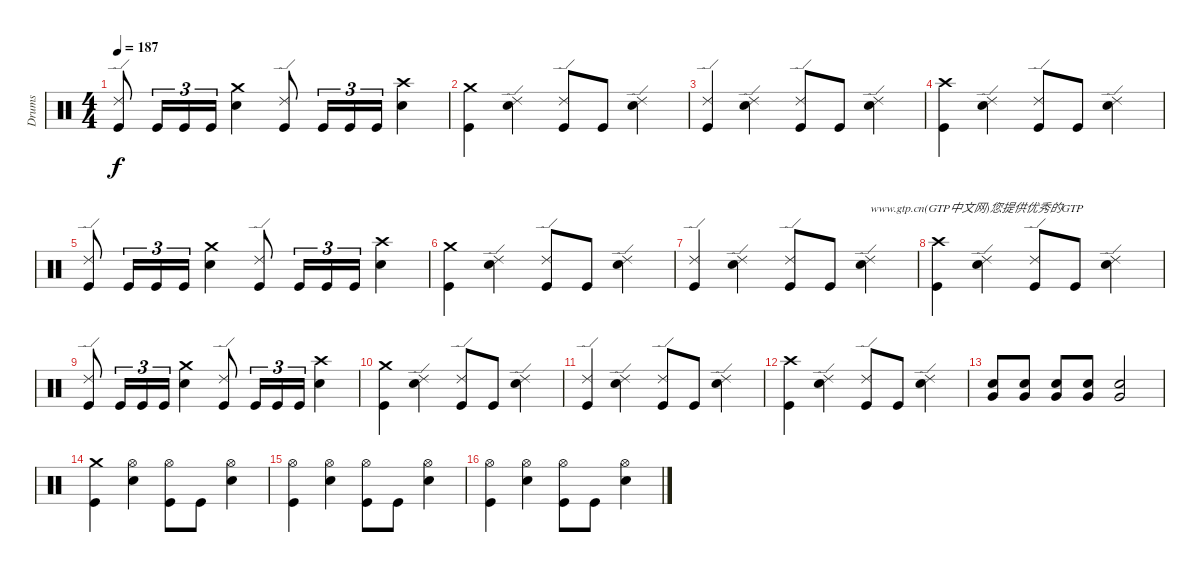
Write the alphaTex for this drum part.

\track ("Drums" "Drums") {instrument percussion}
\staff {score}
\articulation defaults
\ts (4 4)
\tempo 187
\clef neutral
\ks c
("Ride (edge) 2" "Kick (hit)").8{dy f} "Kick (hit)".16{tu (3 2)} "Kick (hit)".16{tu (3 2)} "Kick (hit)".16{tu (3 2)} ("Crash medium (hit)" "Snare (hit) 2").4 ("Ride (edge) 2" "Kick (hit)").8 "Kick (hit)".16{tu (3 2)} "Kick (hit)".16{tu (3 2)} "Kick (hit)".16{tu (3 2)} ("Crash high (hit)" "Snare (hit) 2").4 |
("Crash medium (hit)" "Kick (hit)").4 ("Ride (edge) 2" "Snare (hit) 2").4 ("Ride (edge) 2" "Kick (hit)").8 "Kick (hit)".8 ("Ride (edge) 2" "Snare (hit) 2").4 |
("Ride (edge) 2" "Kick (hit)").4 ("Ride (edge) 2" "Snare (hit) 2").4 ("Ride (edge) 2" "Kick (hit)").8 "Kick (hit)".8 ("Ride (edge) 2" "Snare (hit) 2").4 |
("Crash high (hit)" "Kick (hit)").4 ("Ride (edge) 2" "Snare (hit) 2").4 ("Ride (edge) 2" "Kick (hit)").8 "Kick (hit)".8 ("Ride (edge) 2" "Snare (hit) 2").4 |
("Ride (edge) 2" "Kick (hit)").8 "Kick (hit)".16{tu (3 2)} "Kick (hit)".16{tu (3 2)} "Kick (hit)".16{tu (3 2)} ("Crash medium (hit)" "Snare (hit) 2").4 ("Ride (edge) 2" "Kick (hit)").8 "Kick (hit)".16{tu (3 2)} "Kick (hit)".16{tu (3 2)} "Kick (hit)".16{tu (3 2)} ("Crash high (hit)" "Snare (hit) 2").4 |
("Crash medium (hit)" "Kick (hit)").4 ("Ride (edge) 2" "Snare (hit) 2").4 ("Ride (edge) 2" "Kick (hit)").8 "Kick (hit)".8 ("Ride (edge) 2" "Snare (hit) 2").4 |
("Ride (edge) 2" "Kick (hit)").4 ("Ride (edge) 2" "Snare (hit) 2").4 ("Ride (edge) 2" "Kick (hit)").8 "Kick (hit)".8 ("Ride (edge) 2" "Snare (hit) 2").4{txt "www.gtp.cn(GTP中文网)您提供优秀的GTP"} |
("Crash high (hit)" "Kick (hit)").4 ("Ride (edge) 2" "Snare (hit) 2").4 ("Ride (edge) 2" "Kick (hit)").8 "Kick (hit)".8 ("Ride (edge) 2" "Snare (hit) 2").4 |
("Ride (edge) 2" "Kick (hit)").8 "Kick (hit)".16{tu (3 2)} "Kick (hit)".16{tu (3 2)} "Kick (hit)".16{tu (3 2)} ("Crash medium (hit)" "Snare (hit) 2").4 ("Ride (edge) 2" "Kick (hit)").8 "Kick (hit)".16{tu (3 2)} "Kick (hit)".16{tu (3 2)} "Kick (hit)".16{tu (3 2)} ("Crash high (hit)" "Snare (hit) 2").4 |
("Crash medium (hit)" "Kick (hit)").4 ("Ride (edge) 2" "Snare (hit) 2").4 ("Ride (edge) 2" "Kick (hit)").8 "Kick (hit)".8 ("Ride (edge) 2" "Snare (hit) 2").4 |
("Ride (edge) 2" "Kick (hit)").4 ("Ride (edge) 2" "Snare (hit) 2").4 ("Ride (edge) 2" "Kick (hit)").8 "Kick (hit)".8 ("Ride (edge) 2" "Snare (hit) 2").4 |
("Crash high (hit)" "Kick (hit)").4 ("Ride (edge) 2" "Snare (hit) 2").4 ("Ride (edge) 2" "Kick (hit)").8 "Kick (hit)".8 ("Ride (edge) 2" "Snare (hit) 2").4 |
("Very Low Tom (hit)" "Snare (hit) 2").8 ("Very Low Tom (hit)" "Snare (hit) 2").8 ("Very Low Tom (hit)" "Snare (hit) 2").8 ("Very Low Tom (hit)" "Snare (hit) 2").8 ("Very Low Tom (hit)" "Snare (hit) 2").2 |
("Crash medium (hit)" "Kick (hit)").4 ("Hi-Hat (open)" "Snare (hit) 2").4 ("Hi-Hat (open)" "Kick (hit)").8 "Kick (hit)".8 ("Hi-Hat (open)" "Snare (hit) 2").4 |
("Hi-Hat (open)" "Kick (hit)").4 ("Hi-Hat (open)" "Snare (hit) 2").4 ("Hi-Hat (open)" "Kick (hit)").8 "Kick (hit)".8 ("Hi-Hat (open)" "Snare (hit) 2").4 |
("Hi-Hat (open)" "Kick (hit)").4 ("Hi-Hat (open)" "Snare (hit) 2").4 ("Hi-Hat (open)" "Kick (hit)").8 "Kick (hit)".8 ("Hi-Hat (open)" "Snare (hit) 2").4
